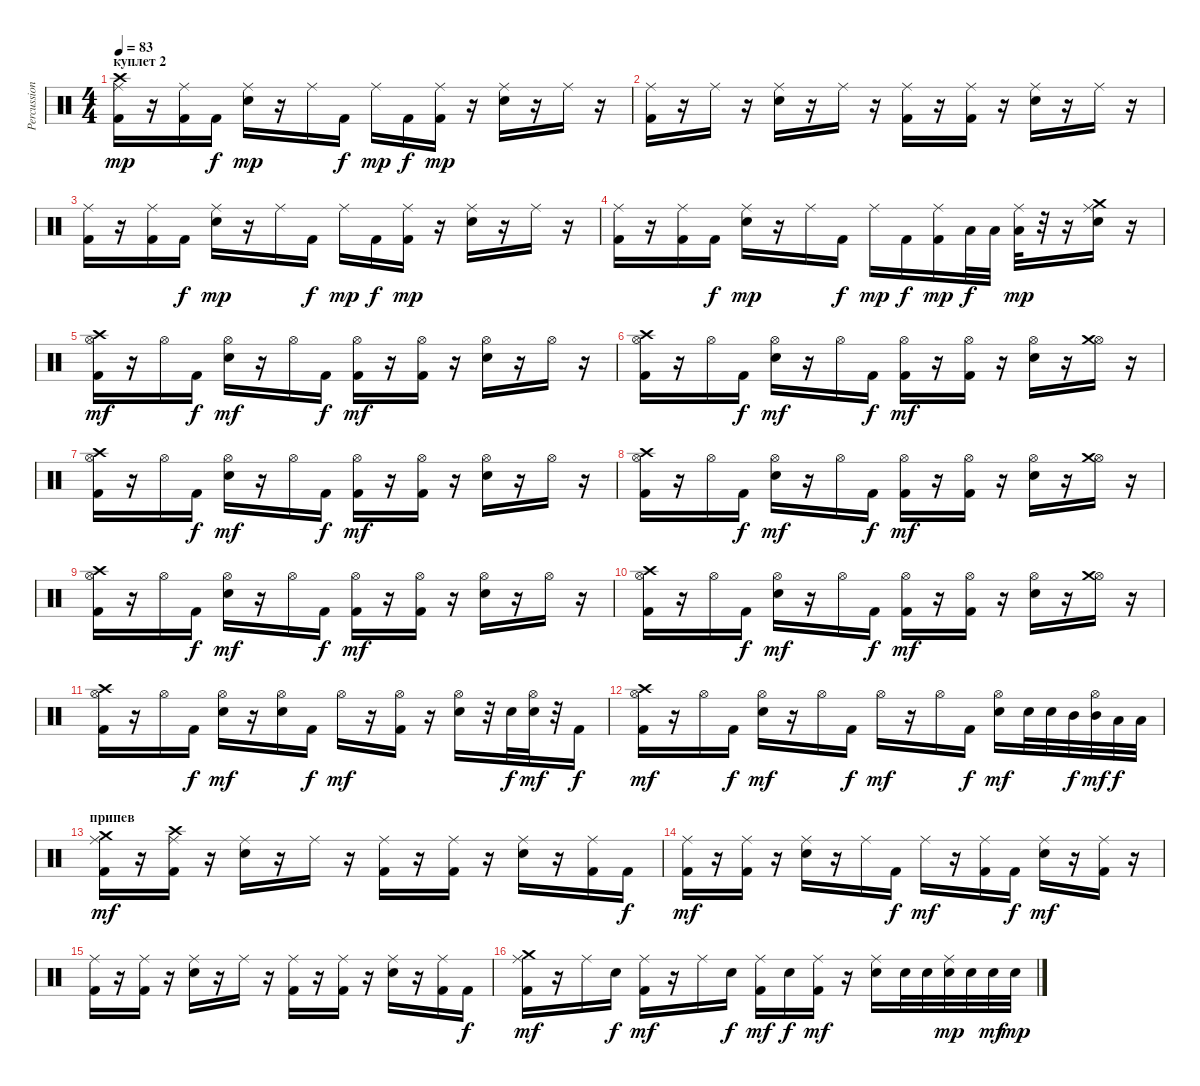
\track ("Percussion" "Percussion") {instrument percussion}
\staff {score}
\articulation defaults
\ts (4 4)
\section ("" "куплет 2")
\tempo 83
\clef neutral
\ks c
("Ride (middle)" "Crash high (hit)" "Kick (hit) 2").16{dy mp} r.16 ("Ride (middle)" "Kick (hit) 2").16 "Kick (hit) 2".16{dy f} ("Ride (middle)" "Electric Snare (hit)").16{dy mp} r.16 "Ride (middle)".16 "Kick (hit) 2".16{dy f} "Ride (middle)".16{dy mp} "Kick (hit) 2".16{dy f} ("Ride (middle)" "Kick (hit) 2").16{dy mp} r.16 ("Ride (middle)" "Electric Snare (hit)").16 r.16 "Ride (middle)".16 r.16 |
("Ride (middle)" "Kick (hit) 2").16 r.16 "Ride (middle)".16 r.16 ("Ride (middle)" "Electric Snare (hit)").16 r.16 "Ride (middle)".16 r.16 ("Ride (middle)" "Kick (hit) 2").16 r.16 ("Ride (middle)" "Kick (hit) 2").16 r.16 ("Ride (middle)" "Electric Snare (hit)").16 r.16 "Ride (middle)".16 r.16 |
("Ride (middle)" "Kick (hit) 2").16 r.16 ("Ride (middle)" "Kick (hit) 2").16 "Kick (hit) 2".16{dy f} ("Ride (middle)" "Electric Snare (hit)").16{dy mp} r.16 "Ride (middle)".16 "Kick (hit) 2".16{dy f} "Ride (middle)".16{dy mp} "Kick (hit) 2".16{dy f} ("Ride (middle)" "Kick (hit) 2").16{dy mp} r.16 ("Ride (middle)" "Electric Snare (hit)").16 r.16 "Ride (middle)".16 r.16 |
("Ride (middle)" "Kick (hit) 2").16 r.16 ("Ride (middle)" "Kick (hit) 2").16 "Kick (hit) 2".16{dy f} ("Ride (middle)" "Electric Snare (hit)").16{dy mp} r.16 "Ride (middle)".16 "Kick (hit) 2".16{dy f} "Ride (middle)".16{dy mp} "Kick (hit) 2".16{dy f} ("Ride (middle)" "Kick (hit) 2").16{dy mp} "Low Tom (hit)".32{dy f} "Low Tom (hit)".32 ("Ride (middle)" "Low Tom (hit)").32{dy mp} r.32 r.16 ("Ride (middle)" "Crash medium (hit)" "Electric Snare (hit)").16 r.16 |
("Hi-Hat (open)" "Crash high (hit)" "Kick (hit) 2").16{dy mf} r.16 "Hi-Hat (open)".16 "Kick (hit) 2".16{dy f} ("Hi-Hat (open)" "Electric Snare (hit)").16{dy mf} r.16 "Hi-Hat (open)".16 "Kick (hit) 2".16{dy f} ("Hi-Hat (open)" "Kick (hit) 2").16{dy mf} r.16 ("Hi-Hat (open)" "Kick (hit) 2").16 r.16 ("Hi-Hat (open)" "Electric Snare (hit)").16 r.16 "Hi-Hat (open)".16 r.16 |
("Hi-Hat (open)" "Crash high (hit)" "Kick (hit) 2").16 r.16 "Hi-Hat (open)".16 "Kick (hit) 2".16{dy f} ("Hi-Hat (open)" "Electric Snare (hit)").16{dy mf} r.16 "Hi-Hat (open)".16 "Kick (hit) 2".16{dy f} ("Hi-Hat (open)" "Kick (hit) 2").16{dy mf} r.16 ("Hi-Hat (open)" "Kick (hit) 2").16 r.16 ("Hi-Hat (open)" "Electric Snare (hit)").16 r.16 ("Hi-Hat (open)" "Crash medium (hit)").16 r.16 |
("Hi-Hat (open)" "Crash high (hit)" "Kick (hit) 2").16 r.16 "Hi-Hat (open)".16 "Kick (hit) 2".16{dy f} ("Hi-Hat (open)" "Electric Snare (hit)").16{dy mf} r.16 "Hi-Hat (open)".16 "Kick (hit) 2".16{dy f} ("Hi-Hat (open)" "Kick (hit) 2").16{dy mf} r.16 ("Hi-Hat (open)" "Kick (hit) 2").16 r.16 ("Hi-Hat (open)" "Electric Snare (hit)").16 r.16 "Hi-Hat (open)".16 r.16 |
("Hi-Hat (open)" "Crash high (hit)" "Kick (hit) 2").16 r.16 "Hi-Hat (open)".16 "Kick (hit) 2".16{dy f} ("Hi-Hat (open)" "Electric Snare (hit)").16{dy mf} r.16 "Hi-Hat (open)".16 "Kick (hit) 2".16{dy f} ("Hi-Hat (open)" "Kick (hit) 2").16{dy mf} r.16 ("Hi-Hat (open)" "Kick (hit) 2").16 r.16 ("Hi-Hat (open)" "Electric Snare (hit)").16 r.16 ("Hi-Hat (open)" "Crash medium (hit)").16 r.16 |
("Hi-Hat (open)" "Crash high (hit)" "Kick (hit) 2").16 r.16 "Hi-Hat (open)".16 "Kick (hit) 2".16{dy f} ("Hi-Hat (open)" "Electric Snare (hit)").16{dy mf} r.16 "Hi-Hat (open)".16 "Kick (hit) 2".16{dy f} ("Hi-Hat (open)" "Kick (hit) 2").16{dy mf} r.16 ("Hi-Hat (open)" "Kick (hit) 2").16 r.16 ("Hi-Hat (open)" "Electric Snare (hit)").16 r.16 "Hi-Hat (open)".16 r.16 |
("Hi-Hat (open)" "Crash high (hit)" "Kick (hit) 2").16 r.16 "Hi-Hat (open)".16 "Kick (hit) 2".16{dy f} ("Hi-Hat (open)" "Electric Snare (hit)").16{dy mf} r.16 "Hi-Hat (open)".16 "Kick (hit) 2".16{dy f} ("Hi-Hat (open)" "Kick (hit) 2").16{dy mf} r.16 ("Hi-Hat (open)" "Kick (hit) 2").16 r.16 ("Hi-Hat (open)" "Electric Snare (hit)").16 r.16 ("Hi-Hat (open)" "Crash medium (hit)").16 r.16 |
("Hi-Hat (open)" "Crash high (hit)" "Kick (hit) 2").16 r.16 "Hi-Hat (open)".16 "Kick (hit) 2".16{dy f} ("Hi-Hat (open)" "Electric Snare (hit)").16{dy mf} r.16 ("Hi-Hat (open)" "Electric Snare (hit)").16 "Kick (hit) 2".16{dy f} "Hi-Hat (open)".16{dy mf} r.16 ("Hi-Hat (open)" "Kick (hit) 2").16 r.16 ("Hi-Hat (open)" "Electric Snare (hit)").16 r.32 "Electric Snare (hit)".32{dy f} ("Hi-Hat (open)" "Electric Snare (hit)").32{dy mf} r.32 "Kick (hit) 2".16{dy f} |
("Hi-Hat (open)" "Crash high (hit)" "Kick (hit) 2").16{dy mf} r.16 "Hi-Hat (open)".16 "Kick (hit) 2".16{dy f} ("Hi-Hat (open)" "Electric Snare (hit)").16{dy mf} r.16 "Hi-Hat (open)".16 "Kick (hit) 2".16{dy f} "Hi-Hat (open)".16{dy mf} r.16 "Hi-Hat (open)".16 "Kick (hit) 2".16{dy f} ("Hi-Hat (open)" "Electric Snare (hit)").16{dy mf} "Electric Snare (hit)".32 "Electric Snare (hit)".32 "Mid Tom (hit)".32{dy f} ("Hi-Hat (open)" "Mid Tom (hit)").32{dy mf} "Low Tom (hit)".32{dy f} "Low Tom (hit)".32 |
\section ("" "припев")
("Ride (middle)" "Crash medium (hit)" "Kick (hit) 2").16{dy mf} r.16 ("Ride (middle)" "Crash high (hit)" "Kick (hit) 2").16 r.16 ("Ride (middle)" "Electric Snare (hit)").16 r.16 "Ride (middle)".16 r.16 ("Ride (middle)" "Kick (hit) 2").16 r.16 ("Ride (middle)" "Kick (hit) 2").16 r.16 ("Ride (middle)" "Electric Snare (hit)").16 r.16 ("Ride (middle)" "Kick (hit) 2").16 "Kick (hit) 2".16{dy f} |
("Ride (middle)" "Kick (hit) 2").16{dy mf} r.16 ("Ride (middle)" "Kick (hit) 2").16 r.16 ("Ride (middle)" "Electric Snare (hit)").16 r.16 "Ride (middle)".16 "Kick (hit) 2".16{dy f} "Ride (middle)".16{dy mf} r.16 ("Ride (middle)" "Kick (hit) 2").16 "Kick (hit) 2".16{dy f} ("Ride (middle)" "Electric Snare (hit)").16{dy mf} r.16 ("Ride (middle)" "Kick (hit) 2").16 r.16 |
("Ride (middle)" "Kick (hit) 2").16 r.16 ("Ride (middle)" "Kick (hit) 2").16 r.16 ("Ride (middle)" "Electric Snare (hit)").16 r.16 "Ride (middle)".16 r.16 ("Ride (middle)" "Kick (hit) 2").16 r.16 ("Ride (middle)" "Kick (hit) 2").16 r.16 ("Ride (middle)" "Electric Snare (hit)").16 r.16 ("Ride (middle)" "Kick (hit) 2").16 "Kick (hit) 2".16{dy f} |
("Ride (middle)" "Crash medium (hit)" "Kick (hit) 2").16{dy mf} r.16 "Ride (middle)".16 "Electric Snare (hit)".16{dy f} ("Ride (middle)" "Kick (hit) 2").16{dy mf} r.16 "Ride (middle)".16 "Electric Snare (hit)".16{dy f} ("Ride (middle)" "Kick (hit) 2").16{dy mf} "Electric Snare (hit)".16{dy f} ("Ride (middle)" "Kick (hit) 2").16{dy mf} r.16 ("Ride (middle)" "Electric Snare (hit)").16 "Electric Snare (hit)".32 "Electric Snare (hit)".32 ("Ride (middle)" "Electric Snare (hit)").32{dy mp} "Electric Snare (hit)".32 "Electric Snare (hit)".32{dy mf} "Electric Snare (hit)".32{dy mp}
